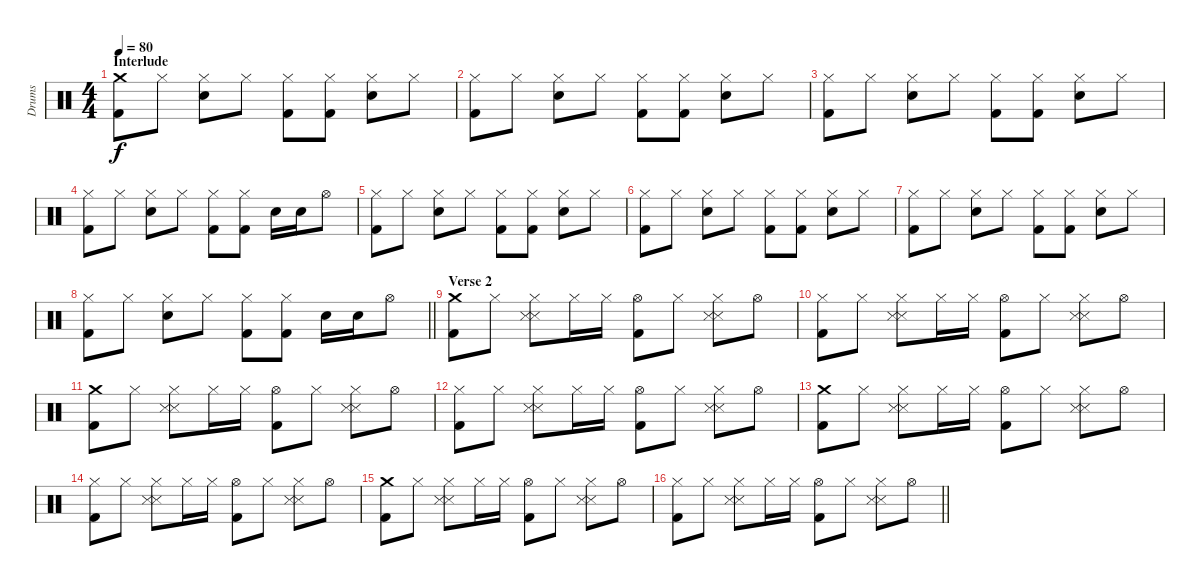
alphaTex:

\track ("Drums" "Drums") {instrument percussion}
\staff {score}
\articulation defaults
\ts (4 4)
\section ("" "Interlude")
\tempo 80
\clef neutral
\ks c
("Crash medium (hit)" "Kick (hit) 2").8{dy f} "Hi-Hat (closed)".8 ("Hi-Hat (closed)" "Electric Snare (hit)").8 "Hi-Hat (closed)".8 ("Hi-Hat (closed)" "Kick (hit) 2").8 ("Hi-Hat (closed)" "Kick (hit) 2").8 ("Hi-Hat (closed)" "Electric Snare (hit)").8 "Hi-Hat (closed)".8 |
("Hi-Hat (closed)" "Kick (hit) 2").8 "Hi-Hat (closed)".8 ("Hi-Hat (closed)" "Electric Snare (hit)").8 "Hi-Hat (closed)".8 ("Hi-Hat (closed)" "Kick (hit) 2").8 ("Hi-Hat (closed)" "Kick (hit) 2").8 ("Hi-Hat (closed)" "Electric Snare (hit)").8 "Hi-Hat (closed)".8 |
("Hi-Hat (closed)" "Kick (hit) 2").8 "Hi-Hat (closed)".8 ("Hi-Hat (closed)" "Electric Snare (hit)").8 "Hi-Hat (closed)".8 ("Hi-Hat (closed)" "Kick (hit) 2").8 ("Hi-Hat (closed)" "Kick (hit) 2").8 ("Hi-Hat (closed)" "Electric Snare (hit)").8 "Hi-Hat (closed)".8 |
("Hi-Hat (closed)" "Kick (hit) 2").8 "Hi-Hat (closed)".8 ("Hi-Hat (closed)" "Electric Snare (hit)").8 "Hi-Hat (closed)".8 ("Hi-Hat (closed)" "Kick (hit) 2").8 ("Hi-Hat (closed)" "Kick (hit) 2").8 "Electric Snare (hit)".16 "Electric Snare (hit)".16 "Hi-Hat (open)".8 |
("Hi-Hat (closed)" "Kick (hit) 2").8 "Hi-Hat (closed)".8 ("Hi-Hat (closed)" "Electric Snare (hit)").8 "Hi-Hat (closed)".8 ("Hi-Hat (closed)" "Kick (hit) 2").8 ("Hi-Hat (closed)" "Kick (hit) 2").8 ("Hi-Hat (closed)" "Electric Snare (hit)").8 "Hi-Hat (closed)".8 |
("Hi-Hat (closed)" "Kick (hit) 2").8 "Hi-Hat (closed)".8 ("Hi-Hat (closed)" "Electric Snare (hit)").8 "Hi-Hat (closed)".8 ("Hi-Hat (closed)" "Kick (hit) 2").8 ("Hi-Hat (closed)" "Kick (hit) 2").8 ("Hi-Hat (closed)" "Electric Snare (hit)").8 "Hi-Hat (closed)".8 |
("Hi-Hat (closed)" "Kick (hit) 2").8 "Hi-Hat (closed)".8 ("Hi-Hat (closed)" "Electric Snare (hit)").8 "Hi-Hat (closed)".8 ("Hi-Hat (closed)" "Kick (hit) 2").8 ("Hi-Hat (closed)" "Kick (hit) 2").8 ("Hi-Hat (closed)" "Electric Snare (hit)").8 "Hi-Hat (closed)".8 |
\barLineRight lightlight
("Hi-Hat (closed)" "Kick (hit) 2").8 "Hi-Hat (closed)".8 ("Hi-Hat (closed)" "Electric Snare (hit)").8 "Hi-Hat (closed)".8 ("Hi-Hat (closed)" "Kick (hit) 2").8 ("Hi-Hat (closed)" "Kick (hit) 2").8 "Electric Snare (hit)".16 "Electric Snare (hit)".16 "Hi-Hat (open)".8 |
\section ("" "Verse 2")
("Crash medium (hit)" "Kick (hit) 2").8 "Hi-Hat (closed)".8 ("Hi-Hat (closed)" "Metronome (hit)" "Snare (side stick) 3").8 "Hi-Hat (closed)".16 "Hi-Hat (closed)".16 ("Hi-Hat (open)" "Kick (hit) 2").8 "Hi-Hat (closed)".8 ("Hi-Hat (closed)" "Metronome (hit)" "Snare (side stick) 3").8 "Hi-Hat (open)".8 |
("Hi-Hat (closed)" "Kick (hit) 2").8 "Hi-Hat (closed)".8 ("Hi-Hat (closed)" "Metronome (hit)" "Snare (side stick) 3").8 "Hi-Hat (closed)".16 "Hi-Hat (closed)".16 ("Hi-Hat (open)" "Kick (hit) 2").8 "Hi-Hat (closed)".8 ("Hi-Hat (closed)" "Metronome (hit)" "Snare (side stick) 3").8 "Hi-Hat (open)".8 |
("Crash medium (hit)" "Kick (hit) 2").8 "Hi-Hat (closed)".8 ("Hi-Hat (closed)" "Metronome (hit)" "Snare (side stick) 3").8 "Hi-Hat (closed)".16 "Hi-Hat (closed)".16 ("Hi-Hat (open)" "Kick (hit) 2").8 "Hi-Hat (closed)".8 ("Hi-Hat (closed)" "Metronome (hit)" "Snare (side stick) 3").8 "Hi-Hat (open)".8 |
("Hi-Hat (closed)" "Kick (hit) 2").8 "Hi-Hat (closed)".8 ("Hi-Hat (closed)" "Metronome (hit)" "Snare (side stick) 3").8 "Hi-Hat (closed)".16 "Hi-Hat (closed)".16 ("Hi-Hat (open)" "Kick (hit) 2").8 "Hi-Hat (closed)".8 ("Hi-Hat (closed)" "Metronome (hit)" "Snare (side stick) 3").8 "Hi-Hat (open)".8 |
("Crash medium (hit)" "Kick (hit) 2").8 "Hi-Hat (closed)".8 ("Hi-Hat (closed)" "Metronome (hit)" "Snare (side stick) 3").8 "Hi-Hat (closed)".16 "Hi-Hat (closed)".16 ("Hi-Hat (open)" "Kick (hit) 2").8 "Hi-Hat (closed)".8 ("Hi-Hat (closed)" "Metronome (hit)" "Snare (side stick) 3").8 "Hi-Hat (open)".8 |
("Hi-Hat (closed)" "Kick (hit) 2").8 "Hi-Hat (closed)".8 ("Hi-Hat (closed)" "Metronome (hit)" "Snare (side stick) 3").8 "Hi-Hat (closed)".16 "Hi-Hat (closed)".16 ("Hi-Hat (open)" "Kick (hit) 2").8 "Hi-Hat (closed)".8 ("Hi-Hat (closed)" "Metronome (hit)" "Snare (side stick) 3").8 "Hi-Hat (open)".8 |
("Crash medium (hit)" "Kick (hit) 2").8 "Hi-Hat (closed)".8 ("Hi-Hat (closed)" "Metronome (hit)" "Snare (side stick) 3").8 "Hi-Hat (closed)".16 "Hi-Hat (closed)".16 ("Hi-Hat (open)" "Kick (hit) 2").8 "Hi-Hat (closed)".8 ("Hi-Hat (closed)" "Metronome (hit)" "Snare (side stick) 3").8 "Hi-Hat (open)".8 |
\barLineRight lightlight
("Hi-Hat (closed)" "Kick (hit) 2").8 "Hi-Hat (closed)".8 ("Hi-Hat (closed)" "Metronome (hit)" "Snare (side stick) 3").8 "Hi-Hat (closed)".16 "Hi-Hat (closed)".16 ("Hi-Hat (open)" "Kick (hit) 2").8 "Hi-Hat (closed)".8 ("Hi-Hat (closed)" "Metronome (hit)" "Snare (side stick) 3").8 "Hi-Hat (open)".8
